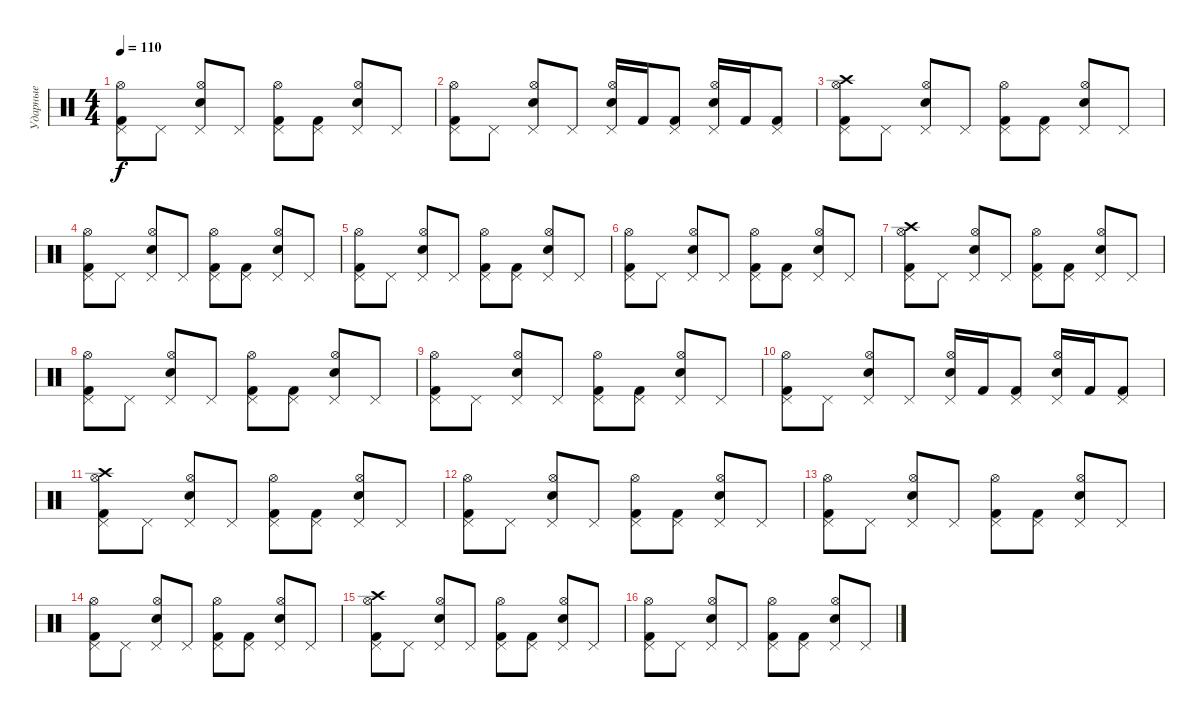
\track ("Ударные" "Ударные") {instrument percussion}
\staff {score}
\articulation defaults
\ts (4 4)
\tempo 110
\clef neutral
\ks c
("Kick (hit) 2" "Pedal Hi-Hat (hit)" "Hi-Hat (open)").8{dy f} "Pedal Hi-Hat (hit)".8 ("Snare (hit) 2" "Pedal Hi-Hat (hit)" "Hi-Hat (open)").8 "Pedal Hi-Hat (hit)".8 ("Kick (hit) 2" "Pedal Hi-Hat (hit)" "Hi-Hat (open)").8 ("Kick (hit) 2" "Pedal Hi-Hat (hit)").8 ("Snare (hit) 2" "Pedal Hi-Hat (hit)" "Hi-Hat (open)").8 "Pedal Hi-Hat (hit)".8 |
("Kick (hit) 2" "Pedal Hi-Hat (hit)" "Hi-Hat (open)").8 "Pedal Hi-Hat (hit)".8 ("Snare (hit) 2" "Pedal Hi-Hat (hit)" "Hi-Hat (open)").8 "Pedal Hi-Hat (hit)".8 ("Snare (hit) 2" "Pedal Hi-Hat (hit)" "Hi-Hat (open)").16 "Kick (hit) 2".16 ("Kick (hit) 2" "Pedal Hi-Hat (hit)").8 ("Snare (hit) 2" "Pedal Hi-Hat (hit)" "Hi-Hat (open)").16 "Kick (hit) 2".16 ("Kick (hit) 2" "Pedal Hi-Hat (hit)").8 |
("Kick (hit) 2" "Crash high (hit)" "Pedal Hi-Hat (hit)" "Hi-Hat (open)").8 "Pedal Hi-Hat (hit)".8 ("Snare (hit) 2" "Pedal Hi-Hat (hit)" "Hi-Hat (open)").8 "Pedal Hi-Hat (hit)".8 ("Kick (hit) 2" "Pedal Hi-Hat (hit)" "Hi-Hat (open)").8 ("Kick (hit) 2" "Pedal Hi-Hat (hit)").8 ("Snare (hit) 2" "Pedal Hi-Hat (hit)" "Hi-Hat (open)").8 "Pedal Hi-Hat (hit)".8 |
("Kick (hit) 2" "Pedal Hi-Hat (hit)" "Hi-Hat (open)").8 "Pedal Hi-Hat (hit)".8 ("Snare (hit) 2" "Pedal Hi-Hat (hit)" "Hi-Hat (open)").8 "Pedal Hi-Hat (hit)".8 ("Kick (hit) 2" "Pedal Hi-Hat (hit)" "Hi-Hat (open)").8 ("Kick (hit) 2" "Pedal Hi-Hat (hit)").8 ("Snare (hit) 2" "Pedal Hi-Hat (hit)" "Hi-Hat (open)").8 "Pedal Hi-Hat (hit)".8 |
("Kick (hit) 2" "Pedal Hi-Hat (hit)" "Hi-Hat (open)").8 "Pedal Hi-Hat (hit)".8 ("Snare (hit) 2" "Pedal Hi-Hat (hit)" "Hi-Hat (open)").8 "Pedal Hi-Hat (hit)".8 ("Kick (hit) 2" "Pedal Hi-Hat (hit)" "Hi-Hat (open)").8 ("Kick (hit) 2" "Pedal Hi-Hat (hit)").8 ("Snare (hit) 2" "Pedal Hi-Hat (hit)" "Hi-Hat (open)").8 "Pedal Hi-Hat (hit)".8 |
("Kick (hit) 2" "Pedal Hi-Hat (hit)" "Hi-Hat (open)").8 "Pedal Hi-Hat (hit)".8 ("Snare (hit) 2" "Pedal Hi-Hat (hit)" "Hi-Hat (open)").8 "Pedal Hi-Hat (hit)".8 ("Kick (hit) 2" "Pedal Hi-Hat (hit)" "Hi-Hat (open)").8 ("Kick (hit) 2" "Pedal Hi-Hat (hit)").8 ("Snare (hit) 2" "Pedal Hi-Hat (hit)" "Hi-Hat (open)").8 "Pedal Hi-Hat (hit)".8 |
("Kick (hit) 2" "Crash high (hit)" "Pedal Hi-Hat (hit)" "Hi-Hat (open)").8 "Pedal Hi-Hat (hit)".8 ("Snare (hit) 2" "Pedal Hi-Hat (hit)" "Hi-Hat (open)").8 "Pedal Hi-Hat (hit)".8 ("Kick (hit) 2" "Pedal Hi-Hat (hit)" "Hi-Hat (open)").8 ("Kick (hit) 2" "Pedal Hi-Hat (hit)").8 ("Snare (hit) 2" "Pedal Hi-Hat (hit)" "Hi-Hat (open)").8 "Pedal Hi-Hat (hit)".8 |
("Kick (hit) 2" "Pedal Hi-Hat (hit)" "Hi-Hat (open)").8 "Pedal Hi-Hat (hit)".8 ("Snare (hit) 2" "Pedal Hi-Hat (hit)" "Hi-Hat (open)").8 "Pedal Hi-Hat (hit)".8 ("Kick (hit) 2" "Pedal Hi-Hat (hit)" "Hi-Hat (open)").8 ("Kick (hit) 2" "Pedal Hi-Hat (hit)").8 ("Snare (hit) 2" "Pedal Hi-Hat (hit)" "Hi-Hat (open)").8 "Pedal Hi-Hat (hit)".8 |
("Kick (hit) 2" "Pedal Hi-Hat (hit)" "Hi-Hat (open)").8 "Pedal Hi-Hat (hit)".8 ("Snare (hit) 2" "Pedal Hi-Hat (hit)" "Hi-Hat (open)").8 "Pedal Hi-Hat (hit)".8 ("Kick (hit) 2" "Pedal Hi-Hat (hit)" "Hi-Hat (open)").8 ("Kick (hit) 2" "Pedal Hi-Hat (hit)").8 ("Snare (hit) 2" "Pedal Hi-Hat (hit)" "Hi-Hat (open)").8 "Pedal Hi-Hat (hit)".8 |
("Kick (hit) 2" "Pedal Hi-Hat (hit)" "Hi-Hat (open)").8 "Pedal Hi-Hat (hit)".8 ("Snare (hit) 2" "Pedal Hi-Hat (hit)" "Hi-Hat (open)").8 "Pedal Hi-Hat (hit)".8 ("Snare (hit) 2" "Pedal Hi-Hat (hit)" "Hi-Hat (open)").16 "Kick (hit) 2".16 ("Kick (hit) 2" "Pedal Hi-Hat (hit)").8 ("Snare (hit) 2" "Pedal Hi-Hat (hit)" "Hi-Hat (open)").16 "Kick (hit) 2".16 ("Kick (hit) 2" "Pedal Hi-Hat (hit)").8 |
("Kick (hit) 2" "Crash high (hit)" "Pedal Hi-Hat (hit)" "Hi-Hat (open)").8 "Pedal Hi-Hat (hit)".8 ("Snare (hit) 2" "Pedal Hi-Hat (hit)" "Hi-Hat (open)").8 "Pedal Hi-Hat (hit)".8 ("Kick (hit) 2" "Pedal Hi-Hat (hit)" "Hi-Hat (open)").8 ("Kick (hit) 2" "Pedal Hi-Hat (hit)").8 ("Snare (hit) 2" "Pedal Hi-Hat (hit)" "Hi-Hat (open)").8 "Pedal Hi-Hat (hit)".8 |
("Kick (hit) 2" "Pedal Hi-Hat (hit)" "Hi-Hat (open)").8 "Pedal Hi-Hat (hit)".8 ("Snare (hit) 2" "Pedal Hi-Hat (hit)" "Hi-Hat (open)").8 "Pedal Hi-Hat (hit)".8 ("Kick (hit) 2" "Pedal Hi-Hat (hit)" "Hi-Hat (open)").8 ("Kick (hit) 2" "Pedal Hi-Hat (hit)").8 ("Snare (hit) 2" "Pedal Hi-Hat (hit)" "Hi-Hat (open)").8 "Pedal Hi-Hat (hit)".8 |
("Kick (hit) 2" "Pedal Hi-Hat (hit)" "Hi-Hat (open)").8 "Pedal Hi-Hat (hit)".8 ("Snare (hit) 2" "Pedal Hi-Hat (hit)" "Hi-Hat (open)").8 "Pedal Hi-Hat (hit)".8 ("Kick (hit) 2" "Pedal Hi-Hat (hit)" "Hi-Hat (open)").8 ("Kick (hit) 2" "Pedal Hi-Hat (hit)").8 ("Snare (hit) 2" "Pedal Hi-Hat (hit)" "Hi-Hat (open)").8 "Pedal Hi-Hat (hit)".8 |
("Kick (hit) 2" "Pedal Hi-Hat (hit)" "Hi-Hat (open)").8 "Pedal Hi-Hat (hit)".8 ("Snare (hit) 2" "Pedal Hi-Hat (hit)" "Hi-Hat (open)").8 "Pedal Hi-Hat (hit)".8 ("Kick (hit) 2" "Pedal Hi-Hat (hit)" "Hi-Hat (open)").8 ("Kick (hit) 2" "Pedal Hi-Hat (hit)").8 ("Snare (hit) 2" "Pedal Hi-Hat (hit)" "Hi-Hat (open)").8 "Pedal Hi-Hat (hit)".8 |
("Kick (hit) 2" "Crash high (hit)" "Pedal Hi-Hat (hit)" "Hi-Hat (open)").8{volume 0} "Pedal Hi-Hat (hit)".8 ("Snare (hit) 2" "Pedal Hi-Hat (hit)" "Hi-Hat (open)").8 "Pedal Hi-Hat (hit)".8 ("Kick (hit) 2" "Pedal Hi-Hat (hit)" "Hi-Hat (open)").8 ("Kick (hit) 2" "Pedal Hi-Hat (hit)").8 ("Snare (hit) 2" "Pedal Hi-Hat (hit)" "Hi-Hat (open)").8 "Pedal Hi-Hat (hit)".8 |
("Kick (hit) 2" "Pedal Hi-Hat (hit)" "Hi-Hat (open)").8 "Pedal Hi-Hat (hit)".8 ("Snare (hit) 2" "Pedal Hi-Hat (hit)" "Hi-Hat (open)").8 "Pedal Hi-Hat (hit)".8 ("Kick (hit) 2" "Pedal Hi-Hat (hit)" "Hi-Hat (open)").8 ("Kick (hit) 2" "Pedal Hi-Hat (hit)").8 ("Snare (hit) 2" "Pedal Hi-Hat (hit)" "Hi-Hat (open)").8 "Pedal Hi-Hat (hit)".8
